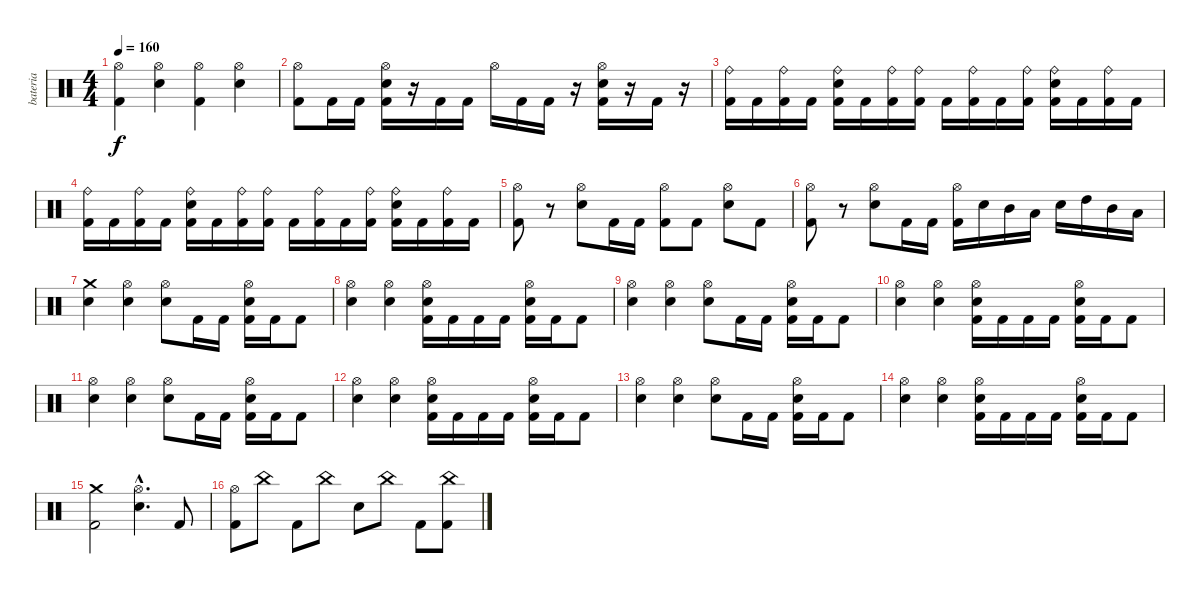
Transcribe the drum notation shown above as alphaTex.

\track ("bateria" "bateria") {instrument percussion}
\staff {score}
\articulation defaults
\ts (4 4)
\tempo 160
\clef neutral
\ks c
("Hi-Hat (open)" "Kick (hit) 2").4{dy f} ("Hi-Hat (open)" "Electric Snare (hit)").4 ("Hi-Hat (open)" "Kick (hit) 2").4 ("Hi-Hat (open)" "Electric Snare (hit)").4 |
("Hi-Hat (open)" "Kick (hit) 2").8 "Kick (hit) 2".16 "Kick (hit) 2".16 ("Hi-Hat (open)" "Electric Snare (hit)" "Kick (hit) 2").16 r.16 "Kick (hit) 2".16 "Kick (hit) 2".16 "Hi-Hat (open)".16 "Kick (hit) 2".16 "Kick (hit) 2".16 r.16 ("Hi-Hat (open)" "Electric Snare (hit)" "Kick (hit) 2").16 r.16 "Kick (hit) 2".16 r.16 |
("Ride (bell)" "Kick (hit) 2").16 "Kick (hit) 2".16 ("Ride (bell)" "Kick (hit) 2").16 "Kick (hit) 2".16 ("Ride (bell)" "Electric Snare (hit)" "Kick (hit) 2").16 "Kick (hit) 2".16 ("Ride (bell)" "Kick (hit) 2").16 ("Ride (bell)" "Kick (hit) 2").16 "Kick (hit) 2".16 ("Ride (bell)" "Kick (hit) 2").16 "Kick (hit) 2".16 ("Ride (bell)" "Kick (hit) 2").16 ("Ride (bell)" "Electric Snare (hit)" "Kick (hit) 2").16 "Kick (hit) 2".16 ("Ride (bell)" "Kick (hit) 2").16 "Kick (hit) 2".16 |
("Ride (bell)" "Kick (hit) 2").16 "Kick (hit) 2".16 ("Ride (bell)" "Kick (hit) 2").16 "Kick (hit) 2".16 ("Ride (bell)" "Electric Snare (hit)" "Kick (hit) 2").16 "Kick (hit) 2".16 ("Ride (bell)" "Kick (hit) 2").16 ("Ride (bell)" "Kick (hit) 2").16 "Kick (hit) 2".16 ("Ride (bell)" "Kick (hit) 2").16 "Kick (hit) 2".16 ("Ride (bell)" "Kick (hit) 2").16 ("Ride (bell)" "Electric Snare (hit)" "Kick (hit) 2").16 "Kick (hit) 2".16 ("Ride (bell)" "Kick (hit) 2").16 "Kick (hit) 2".16 |
("Hi-Hat (open)" "Kick (hit) 2").8 r.8 ("Hi-Hat (open)" "Electric Snare (hit)").8 "Kick (hit) 2".16 "Kick (hit) 2".16 ("Hi-Hat (open)" "Kick (hit) 2").8 "Kick (hit) 2".8 ("Hi-Hat (open)" "Electric Snare (hit)").8 "Kick (hit) 2".8 |
("Hi-Hat (open)" "Kick (hit) 2").8 r.8 ("Hi-Hat (open)" "Electric Snare (hit)").8 "Kick (hit) 2".16 "Kick (hit) 2".16 ("Hi-Hat (open)" "Kick (hit) 2").16 "Electric Snare (hit)".16 "Mid Tom (hit)".16 "Low Tom (hit)".16 "Electric Snare (hit)".16 "High Tom (hit)".16 "Mid Tom (hit)".16 "Low Tom (hit)".16 |
("Crash medium (hit)" "Electric Snare (hit)").4 ("Hi-Hat (open)" "Electric Snare (hit)").4 ("Hi-Hat (open)" "Electric Snare (hit)").8 "Kick (hit) 2".16 "Kick (hit) 2".16 ("Hi-Hat (open)" "Electric Snare (hit)" "Kick (hit) 2").16 "Kick (hit) 2".16 "Kick (hit) 2".8 |
("Hi-Hat (open)" "Electric Snare (hit)").4 ("Hi-Hat (open)" "Electric Snare (hit)").4 ("Hi-Hat (open)" "Electric Snare (hit)" "Kick (hit) 2").16 "Kick (hit) 2".16 "Kick (hit) 2".16 "Kick (hit) 2".16 ("Hi-Hat (open)" "Electric Snare (hit)" "Kick (hit) 2").16 "Kick (hit) 2".16 "Kick (hit) 2".8 |
("Hi-Hat (open)" "Electric Snare (hit)").4 ("Hi-Hat (open)" "Electric Snare (hit)").4 ("Hi-Hat (open)" "Electric Snare (hit)").8 "Kick (hit) 2".16 "Kick (hit) 2".16 ("Hi-Hat (open)" "Electric Snare (hit)" "Kick (hit) 2").16 "Kick (hit) 2".16 "Kick (hit) 2".8 |
("Hi-Hat (open)" "Electric Snare (hit)").4 ("Hi-Hat (open)" "Electric Snare (hit)").4 ("Hi-Hat (open)" "Electric Snare (hit)" "Kick (hit) 2").16 "Kick (hit) 2".16 "Kick (hit) 2".16 "Kick (hit) 2".16 ("Hi-Hat (open)" "Electric Snare (hit)" "Kick (hit) 2").16 "Kick (hit) 2".16 "Kick (hit) 2".8 |
("Hi-Hat (open)" "Electric Snare (hit)").4 ("Hi-Hat (open)" "Electric Snare (hit)").4 ("Hi-Hat (open)" "Electric Snare (hit)").8 "Kick (hit) 2".16 "Kick (hit) 2".16 ("Hi-Hat (open)" "Electric Snare (hit)" "Kick (hit) 2").16 "Kick (hit) 2".16 "Kick (hit) 2".8 |
("Hi-Hat (open)" "Electric Snare (hit)").4 ("Hi-Hat (open)" "Electric Snare (hit)").4 ("Hi-Hat (open)" "Electric Snare (hit)" "Kick (hit) 2").16 "Kick (hit) 2".16 "Kick (hit) 2".16 "Kick (hit) 2".16 ("Hi-Hat (open)" "Electric Snare (hit)" "Kick (hit) 2").16 "Kick (hit) 2".16 "Kick (hit) 2".8 |
("Hi-Hat (open)" "Electric Snare (hit)").4 ("Hi-Hat (open)" "Electric Snare (hit)").4 ("Hi-Hat (open)" "Electric Snare (hit)").8 "Kick (hit) 2".16 "Kick (hit) 2".16 ("Hi-Hat (open)" "Electric Snare (hit)" "Kick (hit) 2").16 "Kick (hit) 2".16 "Kick (hit) 2".8 |
("Hi-Hat (open)" "Electric Snare (hit)").4 ("Hi-Hat (open)" "Electric Snare (hit)").4 ("Hi-Hat (open)" "Electric Snare (hit)" "Kick (hit) 2").16 "Kick (hit) 2".16 "Kick (hit) 2".16 "Kick (hit) 2".16 ("Hi-Hat (open)" "Electric Snare (hit)" "Kick (hit) 2").16 "Kick (hit) 2".16 "Kick (hit) 2".8 |
("Crash medium (hit)" "Kick (hit) 2").2 ("Hi-Hat (open)"{hac} "Electric Snare (hit)"{hac}).4{d} "Kick (hit) 2".8 |
("Hi-Hat (open)" "Kick (hit) 2").8 "China (hit)".8 "Kick (hit) 2".8 "China (hit)".8 "Electric Snare (hit)".8 "China (hit)".8 "Kick (hit) 2".8 ("China (hit)" "Kick (hit) 2").8
